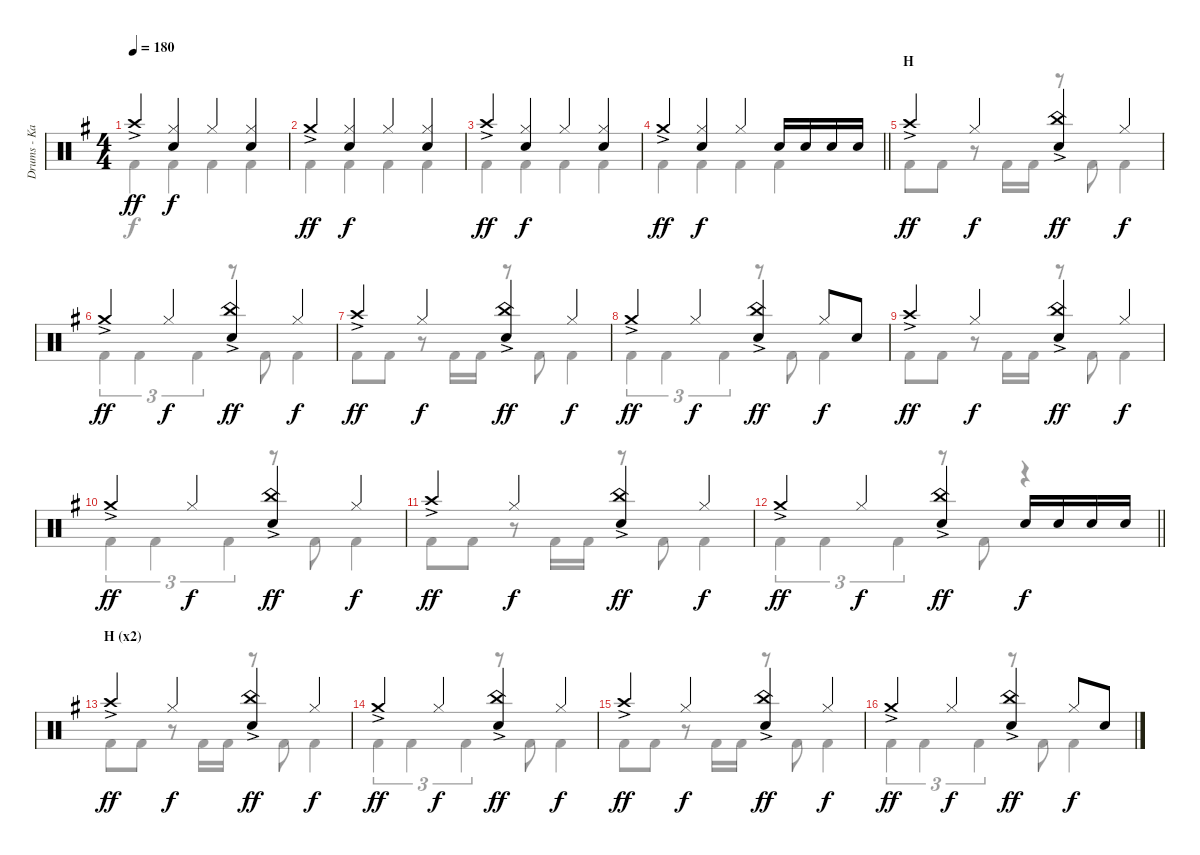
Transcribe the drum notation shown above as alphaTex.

\track ("Drums - Kai" "Drums - Ka") {instrument percussion}
\staff {score}
\articulation defaults
\voice
\ts (4 4)
\tempo 180
\clef neutral
\ks g "Crash high (hit)"{ac}.4{dy ff}
("Hi-Hat (closed)" "Snare (hit) 2").4{dy f} "Hi-Hat (closed)".4 ("Hi-Hat (closed)" "Snare (hit) 2").4 |
"Crash medium (hit)"{ac}.4{dy ff} ("Hi-Hat (closed)" "Snare (hit) 2").4{dy f} "Hi-Hat (closed)".4 ("Hi-Hat (closed)" "Snare (hit) 2").4 |
"Crash high (hit)"{ac}.4{dy ff} ("Hi-Hat (closed)" "Snare (hit) 2").4{dy f} "Hi-Hat (closed)".4 ("Hi-Hat (closed)" "Snare (hit) 2").4 |
\barLineRight lightlight "Crash medium (hit)"{ac}.4{dy ff}
("Hi-Hat (closed)" "Snare (hit) 2").4{dy f} "Hi-Hat (closed)".4 "Snare (hit) 2".16 "Snare (hit) 2".16 "Snare (hit) 2".16 "Snare (hit) 2".16 |
\section ("" "H")
"Crash high (hit)"{ac}.4{dy ff} "Hi-Hat (closed)".4{dy f} ("China (hit)"{ac} "Snare (hit) 2").4{dy ff} "Hi-Hat (closed)".4{dy f} |
"Crash medium (hit)"{ac}.4{dy ff} "Hi-Hat (closed)".4{dy f} ("China (hit)"{ac} "Snare (hit) 2").4{dy ff} "Hi-Hat (closed)".4{dy f} |
"Crash high (hit)"{ac}.4{dy ff} "Hi-Hat (closed)".4{dy f} ("China (hit)"{ac} "Snare (hit) 2").4{dy ff} "Hi-Hat (closed)".4{dy f} |
"Crash medium (hit)"{ac}.4{dy ff} "Hi-Hat (closed)".4{dy f} ("China (hit)"{ac} "Snare (hit) 2").4{dy ff} "Hi-Hat (closed)".8{dy f} "Snare (hit) 2".8 |
"Crash high (hit)"{ac}.4{dy ff} "Hi-Hat (closed)".4{dy f} ("China (hit)"{ac} "Snare (hit) 2").4{dy ff} "Hi-Hat (closed)".4{dy f} |
"Crash medium (hit)"{ac}.4{dy ff} "Hi-Hat (closed)".4{dy f} ("China (hit)"{ac} "Snare (hit) 2").4{dy ff} "Hi-Hat (closed)".4{dy f} |
"Crash high (hit)"{ac}.4{dy ff} "Hi-Hat (closed)".4{dy f} ("China (hit)"{ac} "Snare (hit) 2").4{dy ff} "Hi-Hat (closed)".4{dy f} |
\barLineRight lightlight "Crash medium (hit)"{ac}.4{dy ff} "Hi-Hat (closed)".4{dy f}
("China (hit)"{ac} "Snare (hit) 2").4{dy ff} "Snare (hit) 2".16{dy f} "Snare (hit) 2".16 "Snare (hit) 2".16 "Snare (hit) 2".16 |
\section ("" "H (x2)")
"Crash high (hit)"{ac}.4{dy ff} "Hi-Hat (closed)".4{dy f} ("China (hit)"{ac} "Snare (hit) 2").4{dy ff} "Hi-Hat (closed)".4{dy f} |
"Crash medium (hit)"{ac}.4{dy ff} "Hi-Hat (closed)".4{dy f} ("China (hit)"{ac} "Snare (hit) 2").4{dy ff} "Hi-Hat (closed)".4{dy f} |
"Crash high (hit)"{ac}.4{dy ff} "Hi-Hat (closed)".4{dy f} ("China (hit)"{ac} "Snare (hit) 2").4{dy ff} "Hi-Hat (closed)".4{dy f} |
"Crash medium (hit)"{ac}.4{dy ff} "Hi-Hat (closed)".4{dy f} ("China (hit)"{ac} "Snare (hit) 2").4{dy ff} "Hi-Hat (closed)".8{dy f} "Snare (hit) 2".8
\voice
\clef neutral
\ottava regular
\simile none
\ks g "Kick (hit) 2".4{dy f} "Kick (hit) 2".4 "Kick (hit) 2".4 "Kick (hit) 2".4
|
"Kick (hit) 2".4 "Kick (hit) 2".4 "Kick (hit) 2".4 "Kick (hit) 2".4 |
"Kick (hit) 2".4 "Kick (hit) 2".4 "Kick (hit) 2".4 "Kick (hit) 2".4 |
\barLineRight lightlight "Kick (hit) 2".4 "Kick (hit) 2".4 "Kick (hit) 2".4 "Kick (hit) 2".4
|
"Kick (hit) 2".8 "Kick (hit) 2".8 r.8 "Kick (hit) 2".16 "Kick (hit) 2".16 r.8 "Kick (hit) 2".8 "Kick (hit) 2".4 |
"Kick (hit) 2".4{tu (3 2)} "Kick (hit) 2".4{tu (3 2)} "Kick (hit) 2".4{tu (3 2)} r.8 "Kick (hit) 2".8 "Kick (hit) 2".4 |
"Kick (hit) 2".8 "Kick (hit) 2".8 r.8 "Kick (hit) 2".16 "Kick (hit) 2".16 r.8 "Kick (hit) 2".8 "Kick (hit) 2".4 |
"Kick (hit) 2".4{tu (3 2)} "Kick (hit) 2".4{tu (3 2)} "Kick (hit) 2".4{tu (3 2)} r.8 "Kick (hit) 2".8 "Kick (hit) 2".4 |
"Kick (hit) 2".8 "Kick (hit) 2".8 r.8 "Kick (hit) 2".16 "Kick (hit) 2".16 r.8 "Kick (hit) 2".8 "Kick (hit) 2".4 |
"Kick (hit) 2".4{tu (3 2)} "Kick (hit) 2".4{tu (3 2)} "Kick (hit) 2".4{tu (3 2)} r.8 "Kick (hit) 2".8 "Kick (hit) 2".4 |
"Kick (hit) 2".8 "Kick (hit) 2".8 r.8 "Kick (hit) 2".16 "Kick (hit) 2".16 r.8 "Kick (hit) 2".8 "Kick (hit) 2".4 |
\barLineRight lightlight "Kick (hit) 2".4{tu (3 2)} "Kick (hit) 2".4{tu (3 2)} "Kick (hit) 2".4{tu (3 2)}
r.8 "Kick (hit) 2".8 r.4 |
"Kick (hit) 2".8 "Kick (hit) 2".8 r.8 "Kick (hit) 2".16 "Kick (hit) 2".16 r.8 "Kick (hit) 2".8 "Kick (hit) 2".4 |
"Kick (hit) 2".4{tu (3 2)} "Kick (hit) 2".4{tu (3 2)} "Kick (hit) 2".4{tu (3 2)} r.8 "Kick (hit) 2".8 "Kick (hit) 2".4 |
"Kick (hit) 2".8 "Kick (hit) 2".8 r.8 "Kick (hit) 2".16 "Kick (hit) 2".16 r.8 "Kick (hit) 2".8 "Kick (hit) 2".4 |
"Kick (hit) 2".4{tu (3 2)} "Kick (hit) 2".4{tu (3 2)} "Kick (hit) 2".4{tu (3 2)} r.8 "Kick (hit) 2".8 "Kick (hit) 2".4
